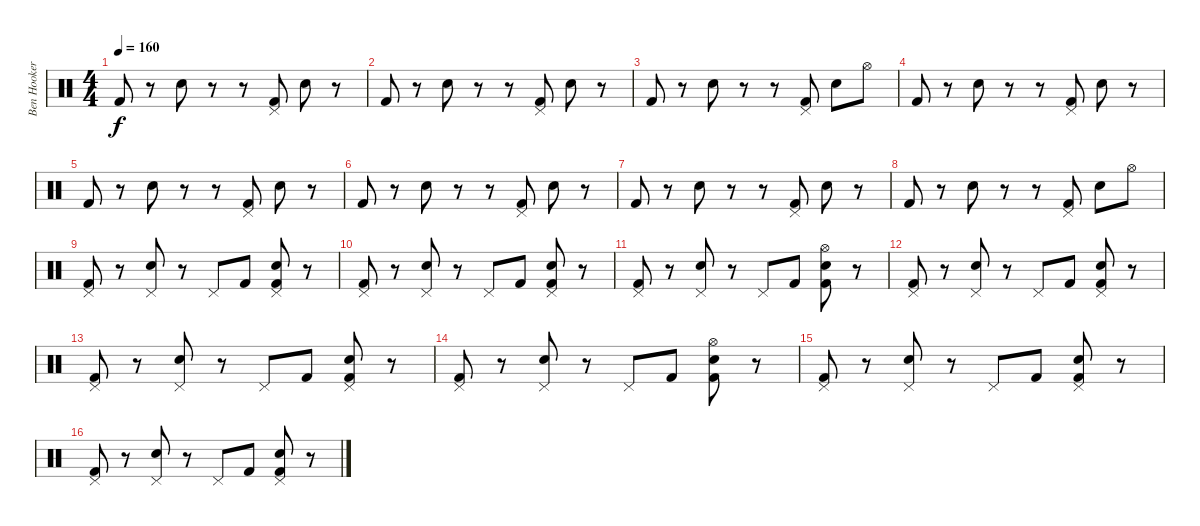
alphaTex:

\track ("Ben Hooker" "Ben Hooker") {instrument percussion}
\staff {score}
\articulation defaults
\ts (4 4)
\tempo 160
\clef neutral
\ks c "Kick (hit) 2".8{dy f}
r.8 "Snare (hit) 2".8 r.8 r.8 ("Pedal Hi-Hat (hit)" "Kick (hit) 2").8 "Snare (hit) 2".8 r.8 |
"Kick (hit) 2".8 r.8 "Snare (hit) 2".8 r.8 r.8 ("Pedal Hi-Hat (hit)" "Kick (hit) 2").8 "Snare (hit) 2".8 r.8 |
"Kick (hit) 2".8 r.8 "Snare (hit) 2".8 r.8 r.8 ("Pedal Hi-Hat (hit)" "Kick (hit) 2").8 "Snare (hit) 2".8 "Hi-Hat (open)".8 |
"Kick (hit) 2".8 r.8 "Snare (hit) 2".8 r.8 r.8 ("Pedal Hi-Hat (hit)" "Kick (hit) 2").8 "Snare (hit) 2".8 r.8 |
"Kick (hit) 2".8 r.8 "Snare (hit) 2".8 r.8 r.8 ("Pedal Hi-Hat (hit)" "Kick (hit) 2").8 "Snare (hit) 2".8 r.8 |
"Kick (hit) 2".8 r.8 "Snare (hit) 2".8 r.8 r.8 ("Pedal Hi-Hat (hit)" "Kick (hit) 2").8 "Snare (hit) 2".8 r.8 |
"Kick (hit) 2".8 r.8 "Snare (hit) 2".8 r.8 r.8 ("Pedal Hi-Hat (hit)" "Kick (hit) 2").8 "Snare (hit) 2".8 r.8 |
"Kick (hit) 2".8 r.8 "Snare (hit) 2".8 r.8 r.8 ("Pedal Hi-Hat (hit)" "Kick (hit) 2").8 "Snare (hit) 2".8 "Hi-Hat (open)".8 |
("Pedal Hi-Hat (hit)" "Kick (hit) 2").8 r.8 ("Snare (hit) 2" "Pedal Hi-Hat (hit)").8 r.8 "Pedal Hi-Hat (hit)".8 "Kick (hit) 2".8 ("Snare (hit) 2" "Pedal Hi-Hat (hit)" "Kick (hit) 2").8 r.8 |
("Pedal Hi-Hat (hit)" "Kick (hit) 2").8 r.8 ("Snare (hit) 2" "Pedal Hi-Hat (hit)").8 r.8 "Pedal Hi-Hat (hit)".8 "Kick (hit) 2".8 ("Snare (hit) 2" "Pedal Hi-Hat (hit)" "Kick (hit) 2").8 r.8 |
("Pedal Hi-Hat (hit)" "Kick (hit) 2").8 r.8 ("Snare (hit) 2" "Pedal Hi-Hat (hit)").8 r.8 "Pedal Hi-Hat (hit)".8 "Kick (hit) 2".8 ("Snare (hit) 2" "Hi-Hat (open)" "Kick (hit) 2").8 r.8 |
("Pedal Hi-Hat (hit)" "Kick (hit) 2").8 r.8 ("Snare (hit) 2" "Pedal Hi-Hat (hit)").8 r.8 "Pedal Hi-Hat (hit)".8 "Kick (hit) 2".8 ("Snare (hit) 2" "Pedal Hi-Hat (hit)" "Kick (hit) 2").8 r.8 |
("Pedal Hi-Hat (hit)" "Kick (hit) 2").8 r.8 ("Snare (hit) 2" "Pedal Hi-Hat (hit)").8 r.8 "Pedal Hi-Hat (hit)".8 "Kick (hit) 2".8 ("Snare (hit) 2" "Pedal Hi-Hat (hit)" "Kick (hit) 2").8 r.8 |
("Pedal Hi-Hat (hit)" "Kick (hit) 2").8 r.8 ("Snare (hit) 2" "Pedal Hi-Hat (hit)").8 r.8 "Pedal Hi-Hat (hit)".8 "Kick (hit) 2".8 ("Snare (hit) 2" "Hi-Hat (open)" "Kick (hit) 2").8 r.8 |
("Pedal Hi-Hat (hit)" "Kick (hit) 2").8 r.8 ("Snare (hit) 2" "Pedal Hi-Hat (hit)").8 r.8 "Pedal Hi-Hat (hit)".8 "Kick (hit) 2".8 ("Snare (hit) 2" "Pedal Hi-Hat (hit)" "Kick (hit) 2").8 r.8 |
("Pedal Hi-Hat (hit)" "Kick (hit) 2").8 r.8 ("Snare (hit) 2" "Pedal Hi-Hat (hit)").8 r.8 "Pedal Hi-Hat (hit)".8 "Kick (hit) 2".8 ("Snare (hit) 2" "Pedal Hi-Hat (hit)" "Kick (hit) 2").8 r.8
